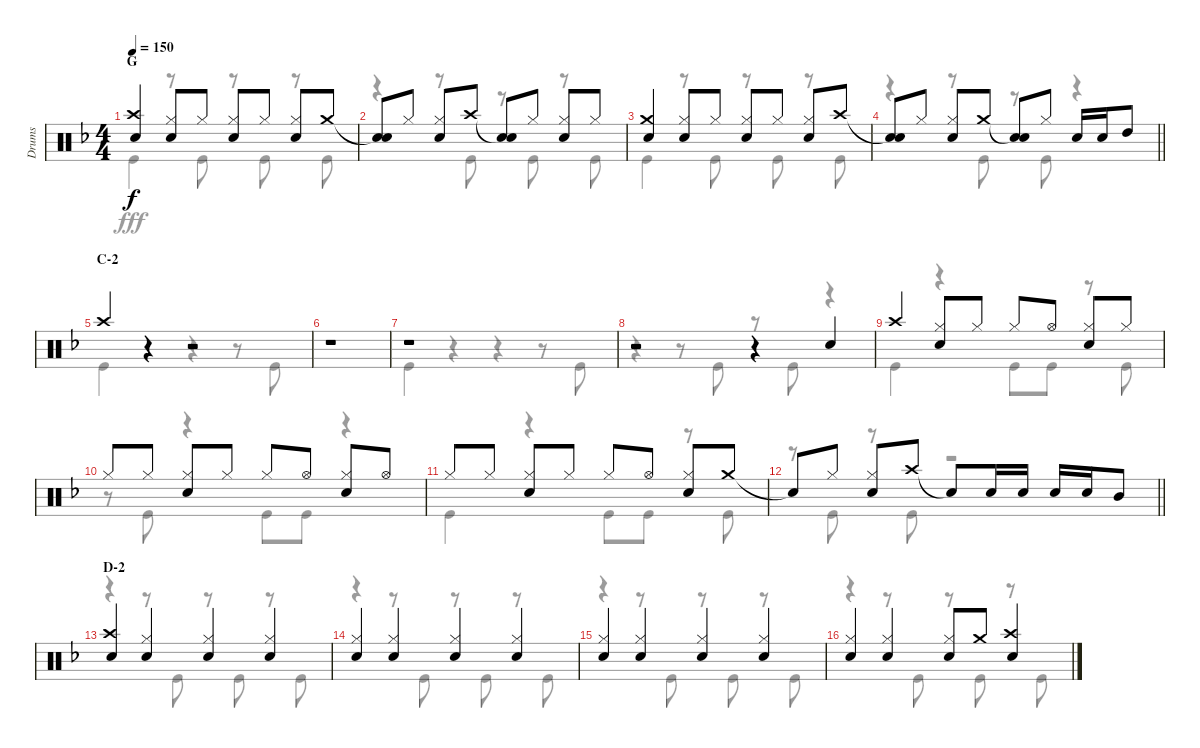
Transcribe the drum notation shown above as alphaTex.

\track ("Drums" "Drums") {instrument percussion}
\staff {score}
\articulation defaults
\voice
\ts (4 4)
\section ("" "G")
\tempo 150
\clef neutral
\ks f
("Crash high (hit)" "Snare (hit) 2").4{dy f} ("Hi-Hat (closed)" "Snare (hit) 2").8 "Hi-Hat (closed)".8 ("Hi-Hat (closed)" "Snare (hit) 2").8 "Hi-Hat (closed)".8 ("Hi-Hat (closed)" "Snare (hit) 2").8 "Crash medium (hit)".8 |
("Snare (hit)"{t} "Snare (hit) 2").8 "Hi-Hat (closed)".8 ("Hi-Hat (closed)" "Snare (hit) 2").8 "Crash high (hit)".8 ("Snare (hit)"{t} "Snare (hit) 2").8 "Hi-Hat (closed)".8 ("Hi-Hat (closed)" "Snare (hit) 2").8 "Hi-Hat (closed)".8 |
("Crash medium (hit)" "Snare (hit) 2").4 ("Hi-Hat (closed)" "Snare (hit) 2").8 "Hi-Hat (closed)".8 ("Hi-Hat (closed)" "Snare (hit) 2").8 "Hi-Hat (closed)".8 ("Hi-Hat (closed)" "Snare (hit) 2").8 "Crash high (hit)".8 |
\barLineRight lightlight
("Snare (hit)"{t} "Snare (hit) 2").8 "Hi-Hat (closed)".8 ("Hi-Hat (closed)" "Snare (hit) 2").8 "Crash medium (hit)".8 ("Snare (hit)"{t} "Snare (hit) 2").8 "Hi-Hat (closed)".8 "Snare (hit) 2".16 "Snare (hit) 2".16 "High Tom (hit)".8 |
\section ("" "C-2")
"Crash high (hit)".4 r.4 r.2 |
r.1 |
r.1 |
r.2 r.4 "Snare (hit) 2".4 |
"Crash high (hit)".4 ("Hi-Hat (closed)" "Snare (hit) 2").8 "Hi-Hat (closed)".8 "Hi-Hat (closed)".8 "Hi-Hat (open)".8 ("Hi-Hat (closed)" "Snare (hit) 2").8 "Hi-Hat (closed)".8 |
"Hi-Hat (closed)".8 "Hi-Hat (closed)".8 ("Hi-Hat (closed)" "Snare (hit) 2").8 "Hi-Hat (closed)".8 "Hi-Hat (closed)".8 "Hi-Hat (open)".8 ("Hi-Hat (closed)" "Snare (hit) 2").8 "Hi-Hat (open)".8 |
"Hi-Hat (closed)".8 "Hi-Hat (closed)".8 ("Hi-Hat (closed)" "Snare (hit) 2").8 "Hi-Hat (closed)".8 "Hi-Hat (closed)".8 "Hi-Hat (open)".8 ("Hi-Hat (closed)" "Snare (hit) 2").8 "Crash medium (hit)".8 |
\barLineRight lightlight "Snare (hit)"{t}.8 "Hi-Hat (closed)".8
("Hi-Hat (closed)" "Snare (hit) 2").8 "Crash high (hit)".8 "Snare (hit)"{t}.8 "Snare (hit) 2".16 "Snare (hit) 2".16 "Snare (hit) 2".16 "Snare (hit) 2".16 "Mid Tom (hit)".8 |
\section ("" "D-2")
("Crash high (hit)" "Snare (hit) 2").4 ("Hi-Hat (closed)" "Snare (hit) 2").4 ("Hi-Hat (closed)" "Snare (hit) 2").4 ("Hi-Hat (closed)" "Snare (hit) 2").4 |
("Hi-Hat (closed)" "Snare (hit) 2").4 ("Hi-Hat (closed)" "Snare (hit) 2").4 ("Hi-Hat (closed)" "Snare (hit) 2").4 ("Hi-Hat (closed)" "Snare (hit) 2").4 |
("Hi-Hat (closed)" "Snare (hit) 2").4 ("Hi-Hat (closed)" "Snare (hit) 2").4 ("Hi-Hat (closed)" "Snare (hit) 2").4 ("Hi-Hat (closed)" "Snare (hit) 2").4 |
("Hi-Hat (closed)" "Snare (hit) 2").4 ("Hi-Hat (closed)" "Snare (hit) 2").4 ("Hi-Hat (closed)" "Snare (hit) 2").8 "Crash medium (hit)".8 ("Crash high (hit)" "Snare (hit) 2").4
\voice
\clef neutral
\ottava regular
\simile none
\ks f "Kick (hit)".4{dy fff}
r.8 "Kick (hit)".8 r.8 "Kick (hit)".8 r.8 "Kick (hit)".8 |
r.4 r.8 "Kick (hit)".8 r.8 "Kick (hit)".8 r.8 "Kick (hit)".8 |
"Kick (hit)".4 r.8 "Kick (hit)".8 r.8 "Kick (hit)".8 r.8 "Kick (hit)".8 |
\barLineRight lightlight
r.4 r.8 "Kick (hit)".8 r.8 "Kick (hit)".8 r.4 |
"Kick (hit)".4 r.4 r.4 r.8 "Kick (hit)".8 |
r.1 |
"Kick (hit)".4 r.4 r.4 r.8 "Kick (hit)".8 |
r.4 r.8 "Kick (hit)".8 r.8 "Kick (hit)".8 r.4 |
"Kick (hit)".4 r.4 "Kick (hit)".8 "Kick (hit)".8 r.8 "Kick (hit)".8 |
r.8 "Kick (hit)".8 r.4 "Kick (hit)".8 "Kick (hit)".8 r.4 |
"Kick (hit)".4 r.4 "Kick (hit)".8 "Kick (hit)".8 r.8 "Kick (hit)".8 |
\barLineRight lightlight
r.8 "Kick (hit)".8 r.8 "Kick (hit)".8 r.2 |
r.4 r.8 "Kick (hit)".8 r.8 "Kick (hit)".8 r.8 "Kick (hit)".8 |
r.4 r.8 "Kick (hit)".8 r.8 "Kick (hit)".8 r.8 "Kick (hit)".8 |
r.4 r.8 "Kick (hit)".8 r.8 "Kick (hit)".8 r.8 "Kick (hit)".8 |
r.4 r.8 "Kick (hit)".8 r.8 "Kick (hit)".8 r.8 "Kick (hit)".8
